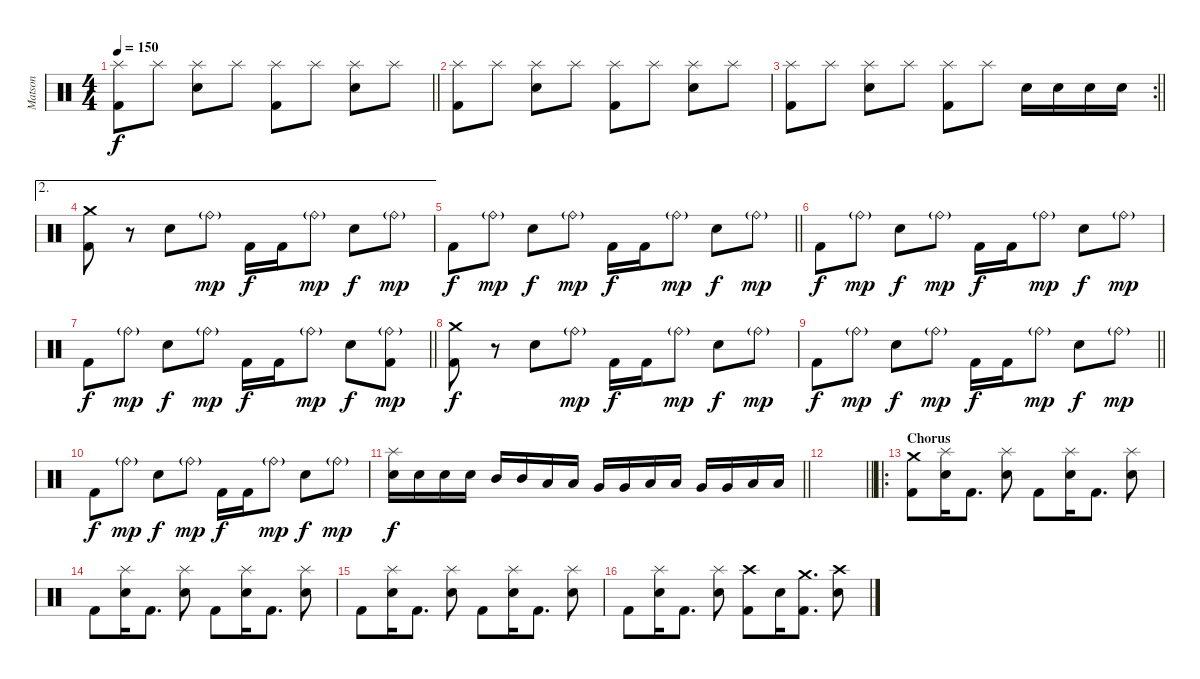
\track ("Matson" "Matson") {instrument percussion}
\staff {score}
\articulation defaults
\ts (4 4)
\tempo 150
\clef neutral
\barLineRight lightlight
\ks c
("Kick (hit) 2" "Splash (hit)").8{dy f} "Splash (hit)".8 ("Snare (hit) 2" "Splash (hit)").8 "Splash (hit)".8 ("Kick (hit) 2" "Splash (hit)").8 "Splash (hit)".8 ("Snare (hit) 2" "Splash (hit)").8 "Splash (hit)".8 |
\section ("" "")
("Kick (hit) 2" "Splash (hit)").8 "Splash (hit)".8 ("Snare (hit) 2" "Splash (hit)").8 "Splash (hit)".8 ("Kick (hit) 2" "Splash (hit)").8 "Splash (hit)".8 ("Snare (hit) 2" "Splash (hit)").8 "Splash (hit)".8 |
\rc 2
\barLineRight lightlight
("Kick (hit) 2" "Splash (hit)").8 "Splash (hit)".8 ("Snare (hit) 2" "Splash (hit)").8 "Splash (hit)".8 ("Kick (hit) 2" "Splash (hit)").8 "Splash (hit)".8 "Snare (hit) 2".16 "Snare (hit) 2".16 "Snare (hit) 2".16 "Snare (hit) 2".16 |
\ae 2
("Kick (hit) 2" "Crash medium (hit)").8 r.8 "Snare (hit) 2".8 "Ride (bell)"{g}.8{dy mp} "Kick (hit) 2".16{dy f} "Kick (hit) 2".16 "Ride (bell)"{g}.8{dy mp} "Snare (hit) 2".8{dy f} "Ride (bell)"{g}.8{dy mp} |
\barLineRight lightlight "Kick (hit) 2".8{dy f} "Ride (bell)"{g}.8{dy mp} "Snare (hit) 2".8{dy f} "Ride (bell)"{g}.8{dy mp} "Kick (hit) 2".16{dy f} "Kick (hit) 2".16 "Ride (bell)"{g}.8{dy mp} "Snare (hit) 2".8{dy f} "Ride (bell)"{g}.8{dy mp}
|
\section ("" "")
"Kick (hit) 2".8{dy f} "Ride (bell)"{g}.8{dy mp} "Snare (hit) 2".8{dy f} "Ride (bell)"{g}.8{dy mp} "Kick (hit) 2".16{dy f} "Kick (hit) 2".16 "Ride (bell)"{g}.8{dy mp} "Snare (hit) 2".8{dy f} "Ride (bell)"{g}.8{dy mp} |
\barLineRight lightlight "Kick (hit) 2".8{dy f} "Ride (bell)"{g}.8{dy mp} "Snare (hit) 2".8{dy f} "Ride (bell)"{g}.8{dy mp} "Kick (hit) 2".16{dy f} "Kick (hit) 2".16 "Ride (bell)"{g}.8{dy mp} "Snare (hit) 2".8{dy f}
("Kick (hit) 2" "Ride (bell)"{g}).8{dy mp} |
("Kick (hit) 2" "Crash medium (hit)").8{dy f} r.8 "Snare (hit) 2".8 "Ride (bell)"{g}.8{dy mp} "Kick (hit) 2".16{dy f} "Kick (hit) 2".16 "Ride (bell)"{g}.8{dy mp} "Snare (hit) 2".8{dy f} "Ride (bell)"{g}.8{dy mp} |
\barLineRight lightlight "Kick (hit) 2".8{dy f} "Ride (bell)"{g}.8{dy mp} "Snare (hit) 2".8{dy f} "Ride (bell)"{g}.8{dy mp} "Kick (hit) 2".16{dy f} "Kick (hit) 2".16 "Ride (bell)"{g}.8{dy mp} "Snare (hit) 2".8{dy f} "Ride (bell)"{g}.8{dy mp}
|
"Kick (hit) 2".8{dy f} "Ride (bell)"{g}.8{dy mp} "Snare (hit) 2".8{dy f} "Ride (bell)"{g}.8{dy mp} "Kick (hit) 2".16{dy f} "Kick (hit) 2".16 "Ride (bell)"{g}.8{dy mp} "Snare (hit) 2".8{dy f} "Ride (bell)"{g}.8{dy mp} |
\barLineRight lightlight
("Snare (hit) 2" "Splash (hit)").16{dy f} "Snare (hit) 2".16 "Snare (hit) 2".16 "Snare (hit) 2".16 "Mid Tom (hit)".16 "Mid Tom (hit)".16 "Low Tom (hit)".16 "Low Tom (hit)".16 "Very Low Tom (hit)".16 "Very Low Tom (hit)".16 "Low Floor Tom (hit)".16 "Low Floor Tom (hit)".16 "Very Low Tom (hit)".16 "Very Low Tom (hit)".16 "Low Floor Tom (hit)".16 "Low Floor Tom (hit)".16 |
\barLineRight lightlight
|
\ro
\section ("" "Chorus")
("Kick (hit) 2" "Crash medium (hit)").8 ("Snare (hit) 2" "Splash (hit)").16 "Kick (hit) 2".8{d} ("Snare (hit) 2" "Splash (hit)").8 "Kick (hit) 2".8 ("Snare (hit) 2" "Splash (hit)").16 "Kick (hit) 2".8{d} ("Snare (hit) 2" "Splash (hit)").8 |
"Kick (hit) 2".8 ("Snare (hit) 2" "Splash (hit)").16 "Kick (hit) 2".8{d} ("Snare (hit) 2" "Splash (hit)").8 "Kick (hit) 2".8 ("Snare (hit) 2" "Splash (hit)").16 "Kick (hit) 2".8{d} ("Snare (hit) 2" "Splash (hit)").8 |
"Kick (hit) 2".8 ("Snare (hit) 2" "Splash (hit)").16 "Kick (hit) 2".8{d} ("Snare (hit) 2" "Splash (hit)").8 "Kick (hit) 2".8 ("Snare (hit) 2" "Splash (hit)").16 "Kick (hit) 2".8{d} ("Snare (hit) 2" "Splash (hit)").8 |
"Kick (hit) 2".8 ("Snare (hit) 2" "Splash (hit)").16 "Kick (hit) 2".8{d} ("Snare (hit) 2" "Splash (hit)").8 ("Kick (hit) 2" "Crash high (hit)").8 "Snare (hit) 2".16 ("Kick (hit) 2" "Crash medium (hit)").8{d} ("Snare (hit) 2" "Crash high (hit)").8
